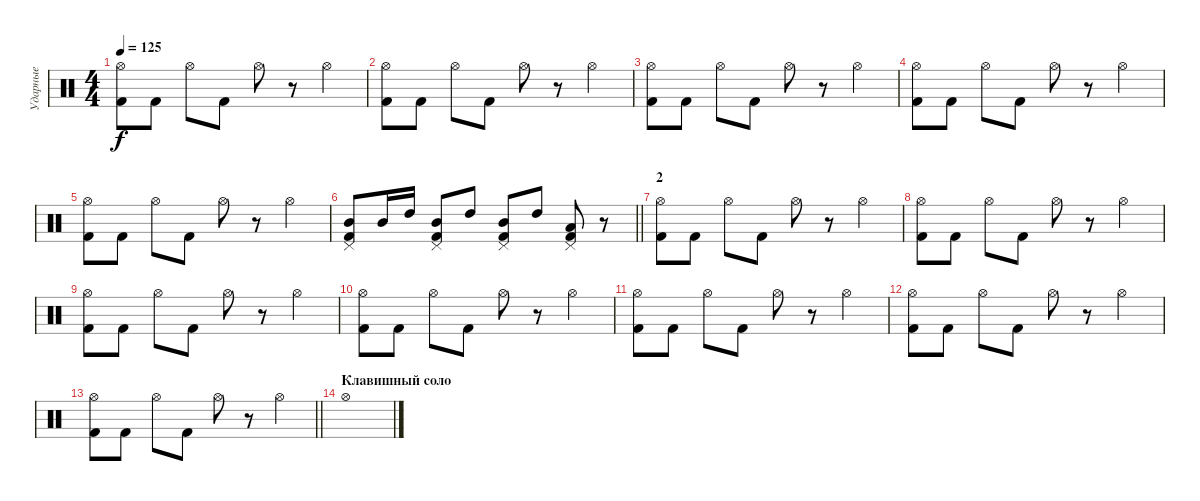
\track ("Ударные" "Ударные") {instrument percussion}
\staff {score}
\articulation defaults
\ts (4 4)
\tempo 125
\clef neutral
\ks c
("Kick (hit) 2" "Hi-Hat (open)").8{dy f} "Kick (hit) 2".8 "Hi-Hat (open)".8 "Kick (hit) 2".8 "Hi-Hat (open)".8 r.8 "Hi-Hat (open)".4 |
("Kick (hit) 2" "Hi-Hat (open)").8 "Kick (hit) 2".8 "Hi-Hat (open)".8 "Kick (hit) 2".8 "Hi-Hat (open)".8 r.8 "Hi-Hat (open)".4 |
("Kick (hit) 2" "Hi-Hat (open)").8 "Kick (hit) 2".8 "Hi-Hat (open)".8 "Kick (hit) 2".8 "Hi-Hat (open)".8 r.8 "Hi-Hat (open)".4 |
("Kick (hit) 2" "Hi-Hat (open)").8 "Kick (hit) 2".8 "Hi-Hat (open)".8 "Kick (hit) 2".8 "Hi-Hat (open)".8 r.8 "Hi-Hat (open)".4 |
("Kick (hit) 2" "Hi-Hat (open)").8 "Kick (hit) 2".8 "Hi-Hat (open)".8 "Kick (hit) 2".8 "Hi-Hat (open)".8 r.8 "Hi-Hat (open)".4 |
\barLineRight lightlight
("Mid Tom (hit)" "Kick (hit) 2" "Pedal Hi-Hat (hit)").8 "Mid Tom (hit)".16 "High Tom (hit)".16 ("Mid Tom (hit)" "Kick (hit) 2" "Pedal Hi-Hat (hit)").8 "High Tom (hit)".8 ("Mid Tom (hit)" "Kick (hit) 2" "Pedal Hi-Hat (hit)").8 "High Tom (hit)".8 ("Low Tom (hit)" "Kick (hit) 2" "Pedal Hi-Hat (hit)").8 r.8 |
\section ("" "2")
("Kick (hit) 2" "Hi-Hat (open)").8 "Kick (hit) 2".8 "Hi-Hat (open)".8 "Kick (hit) 2".8 "Hi-Hat (open)".8 r.8 "Hi-Hat (open)".4 |
("Kick (hit) 2" "Hi-Hat (open)").8 "Kick (hit) 2".8 "Hi-Hat (open)".8 "Kick (hit) 2".8 "Hi-Hat (open)".8 r.8 "Hi-Hat (open)".4 |
("Kick (hit) 2" "Hi-Hat (open)").8 "Kick (hit) 2".8 "Hi-Hat (open)".8 "Kick (hit) 2".8 "Hi-Hat (open)".8 r.8 "Hi-Hat (open)".4 |
("Kick (hit) 2" "Hi-Hat (open)").8 "Kick (hit) 2".8 "Hi-Hat (open)".8 "Kick (hit) 2".8 "Hi-Hat (open)".8 r.8 "Hi-Hat (open)".4 |
("Kick (hit) 2" "Hi-Hat (open)").8 "Kick (hit) 2".8 "Hi-Hat (open)".8 "Kick (hit) 2".8 "Hi-Hat (open)".8 r.8 "Hi-Hat (open)".4 |
("Kick (hit) 2" "Hi-Hat (open)").8 "Kick (hit) 2".8 "Hi-Hat (open)".8 "Kick (hit) 2".8 "Hi-Hat (open)".8 r.8 "Hi-Hat (open)".4 |
\barLineRight lightlight
("Kick (hit) 2" "Hi-Hat (open)").8 "Kick (hit) 2".8 "Hi-Hat (open)".8 "Kick (hit) 2".8 "Hi-Hat (open)".8 r.8 "Hi-Hat (open)".4 |
\section ("" "Клавишный соло")
"Hi-Hat (open)".1
